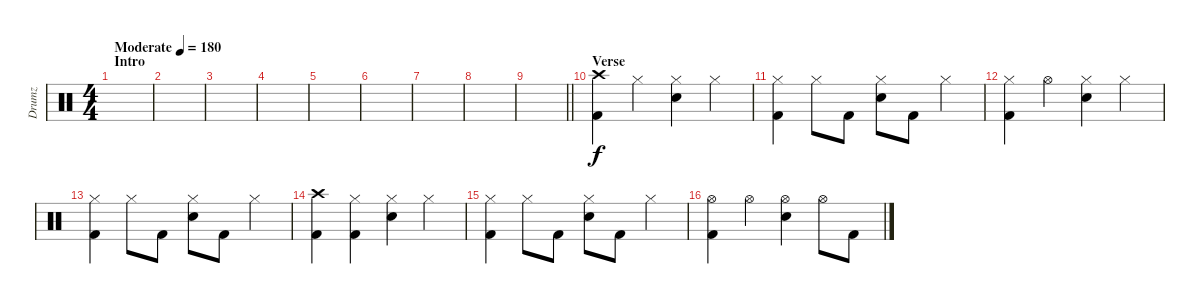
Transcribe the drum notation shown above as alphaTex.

\track ("Drumz" "Drumz") {instrument percussion}
\staff {score}
\articulation defaults
\ts (4 4)
\section ("" "Intro")
\tempo (180 "Moderate")
\clef neutral
\ks c
|
|
|
|
|
|
|
|
\barLineRight lightlight
|
\section ("" "Verse")
("Kick (hit) 2" "Crash high (hit)").4 "Hi-Hat (closed)".4 ("Hi-Hat (closed)" "Snare (hit) 2").4 "Hi-Hat (closed)".4 |
("Kick (hit) 2" "Hi-Hat (closed)").4 "Hi-Hat (closed)".8 "Kick (hit) 2".8 ("Hi-Hat (closed)" "Snare (hit) 2").8 "Kick (hit) 2".8 "Hi-Hat (closed)".4 |
("Kick (hit) 2" "Hi-Hat (closed)").4 "Hi-Hat (open)".4 ("Hi-Hat (closed)" "Snare (hit) 2").4 "Hi-Hat (closed)".4 |
("Kick (hit) 2" "Hi-Hat (closed)").4 "Hi-Hat (closed)".8 "Kick (hit) 2".8 ("Hi-Hat (closed)" "Snare (hit) 2").8 "Kick (hit) 2".8 "Hi-Hat (closed)".4 |
("Kick (hit) 2" "Crash high (hit)").4 ("Kick (hit) 2" "Hi-Hat (closed)").4 ("Hi-Hat (closed)" "Snare (hit) 2").4 "Hi-Hat (closed)".4 |
("Kick (hit) 2" "Hi-Hat (closed)").4 "Hi-Hat (closed)".8 "Kick (hit) 2".8 ("Hi-Hat (closed)" "Snare (hit) 2").8 "Kick (hit) 2".8 "Hi-Hat (closed)".4 |
("Hi-Hat (open)" "Kick (hit) 2").4 "Hi-Hat (open)".4 ("Hi-Hat (open)" "Snare (hit) 2").4 "Hi-Hat (open)".8 "Kick (hit) 2".8
